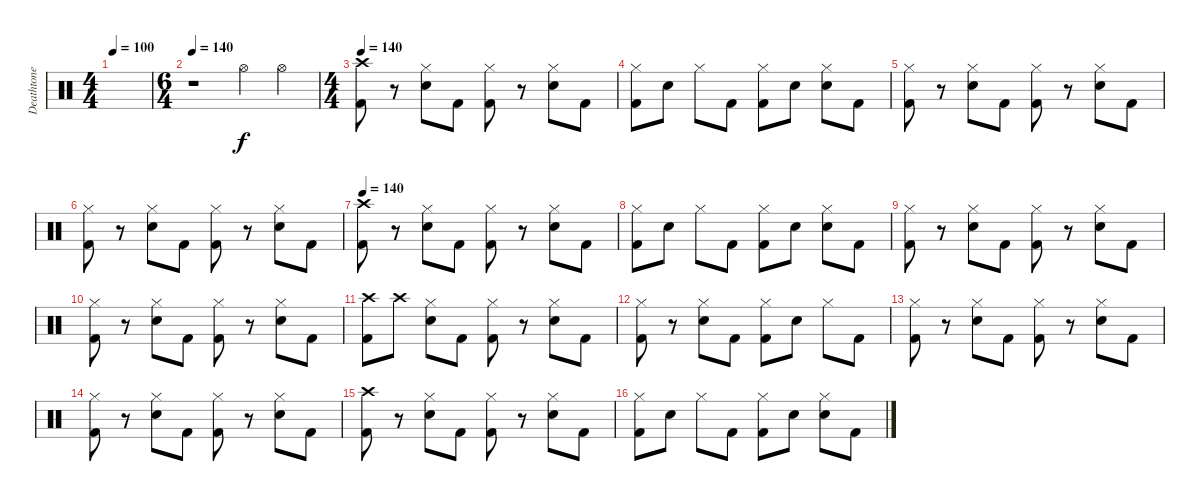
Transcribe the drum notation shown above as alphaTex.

\track ("Deathtone" "Deathtone") {instrument percussion}
\staff {score}
\articulation defaults
\ts (4 4)
\tempo 100
\clef neutral
\ks c
|
\ts (6 4)
\tempo 140
r.1 "Hi-Hat (open)".4 "Hi-Hat (open)".4 |
\ts (4 4)
\tempo 140
("Crash high (hit)" "Kick (hit) 2").8 r.8 ("Hi-Hat (closed)" "Snare (hit) 2").8 "Kick (hit) 2".8 ("Hi-Hat (closed)" "Kick (hit) 2").8 r.8 ("Hi-Hat (closed)" "Snare (hit) 2").8 "Kick (hit) 2".8 |
("Hi-Hat (closed)" "Kick (hit) 2").8 "Snare (hit) 2".8 "Hi-Hat (closed)".8 "Kick (hit) 2".8 ("Hi-Hat (closed)" "Kick (hit) 2").8 "Snare (hit) 2".8 ("Hi-Hat (closed)" "Snare (hit) 2").8 "Kick (hit) 2".8 |
("Hi-Hat (closed)" "Kick (hit) 2").8 r.8 ("Hi-Hat (closed)" "Snare (hit) 2").8 "Kick (hit) 2".8 ("Hi-Hat (closed)" "Kick (hit) 2").8 r.8 ("Hi-Hat (closed)" "Snare (hit) 2").8 "Kick (hit) 2".8 |
("Hi-Hat (closed)" "Kick (hit) 2").8 r.8 ("Hi-Hat (closed)" "Snare (hit) 2").8 "Kick (hit) 2".8 ("Hi-Hat (closed)" "Kick (hit) 2").8 r.8 ("Hi-Hat (closed)" "Snare (hit) 2").8 "Kick (hit) 2".8 |
\tempo 140
("Crash high (hit)" "Kick (hit) 2").8 r.8 ("Hi-Hat (closed)" "Snare (hit) 2").8 "Kick (hit) 2".8 ("Hi-Hat (closed)" "Kick (hit) 2").8 r.8 ("Hi-Hat (closed)" "Snare (hit) 2").8 "Kick (hit) 2".8 |
("Hi-Hat (closed)" "Kick (hit) 2").8 "Snare (hit) 2".8 "Hi-Hat (closed)".8 "Kick (hit) 2".8 ("Hi-Hat (closed)" "Kick (hit) 2").8 "Snare (hit) 2".8 ("Hi-Hat (closed)" "Snare (hit) 2").8 "Kick (hit) 2".8 |
("Hi-Hat (closed)" "Kick (hit) 2").8 r.8 ("Hi-Hat (closed)" "Snare (hit) 2").8 "Kick (hit) 2".8 ("Hi-Hat (closed)" "Kick (hit) 2").8 r.8 ("Hi-Hat (closed)" "Snare (hit) 2").8 "Kick (hit) 2".8 |
("Hi-Hat (closed)" "Kick (hit) 2").8 r.8 ("Hi-Hat (closed)" "Snare (hit) 2").8 "Kick (hit) 2".8 ("Hi-Hat (closed)" "Kick (hit) 2").8 r.8 ("Hi-Hat (closed)" "Snare (hit) 2").8 "Kick (hit) 2".8 |
("Crash high (hit)" "Kick (hit) 2").8 "Crash high (hit)".8 ("Hi-Hat (closed)" "Snare (hit) 2").8 "Kick (hit) 2".8 ("Hi-Hat (closed)" "Kick (hit) 2").8 r.8 ("Hi-Hat (closed)" "Snare (hit) 2").8 "Kick (hit) 2".8 |
("Hi-Hat (closed)" "Kick (hit) 2").8 r.8 ("Hi-Hat (closed)" "Snare (hit) 2").8 "Kick (hit) 2".8 ("Hi-Hat (closed)" "Kick (hit) 2").8 "Snare (hit) 2".8 "Hi-Hat (closed)".8 "Kick (hit) 2".8 |
("Hi-Hat (closed)" "Kick (hit) 2").8 r.8 ("Hi-Hat (closed)" "Snare (hit) 2").8 "Kick (hit) 2".8 ("Hi-Hat (closed)" "Kick (hit) 2").8 r.8 ("Hi-Hat (closed)" "Snare (hit) 2").8 "Kick (hit) 2".8 |
("Hi-Hat (closed)" "Kick (hit) 2").8 r.8 ("Hi-Hat (closed)" "Snare (hit) 2").8 "Kick (hit) 2".8 ("Hi-Hat (closed)" "Kick (hit) 2").8 r.8 ("Hi-Hat (closed)" "Snare (hit) 2").8 "Kick (hit) 2".8 |
("Crash high (hit)" "Kick (hit) 2").8 r.8 ("Hi-Hat (closed)" "Snare (hit) 2").8 "Kick (hit) 2".8 ("Hi-Hat (closed)" "Kick (hit) 2").8 r.8 ("Hi-Hat (closed)" "Snare (hit) 2").8 "Kick (hit) 2".8 |
("Hi-Hat (closed)" "Kick (hit) 2").8 "Snare (hit) 2".8 "Hi-Hat (closed)".8 "Kick (hit) 2".8 ("Hi-Hat (closed)" "Kick (hit) 2").8 "Snare (hit) 2".8 ("Hi-Hat (closed)" "Snare (hit) 2").8 "Kick (hit) 2".8
